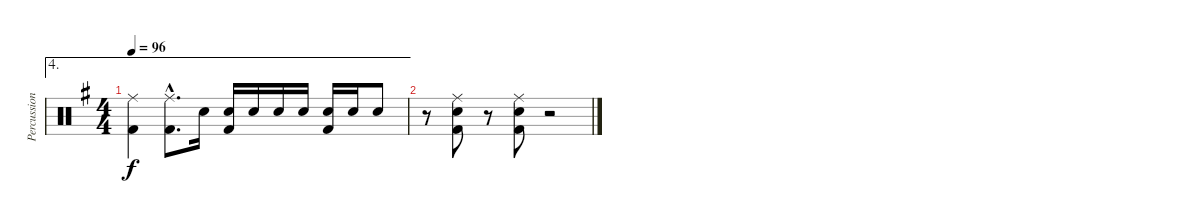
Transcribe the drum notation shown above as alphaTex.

\track ("Percussions" "Percussion") {instrument percussion}
\staff {score}
\articulation defaults
\ae 4
\ts (4 4)
\tempo 96
\clef neutral
\ks g
("Ride (middle)" "Kick (hit) 2").4{dy f} ("Ride (middle)"{hac} "Kick (hit) 2"{hac}).8{d} "Snare (hit) 2".16 ("Snare (hit) 2" "Kick (hit) 2").16 "Snare (hit) 2".16 "Snare (hit) 2".16 "Snare (hit) 2".16 ("Snare (hit) 2" "Kick (hit) 2").16 "Snare (hit) 2".16 "Snare (hit) 2".8 |
r.8 ("Ride (middle)" "Snare (hit) 2" "Kick (hit) 2").8 r.8 ("Ride (middle)" "Snare (hit) 2" "Kick (hit) 2").8 r.2
